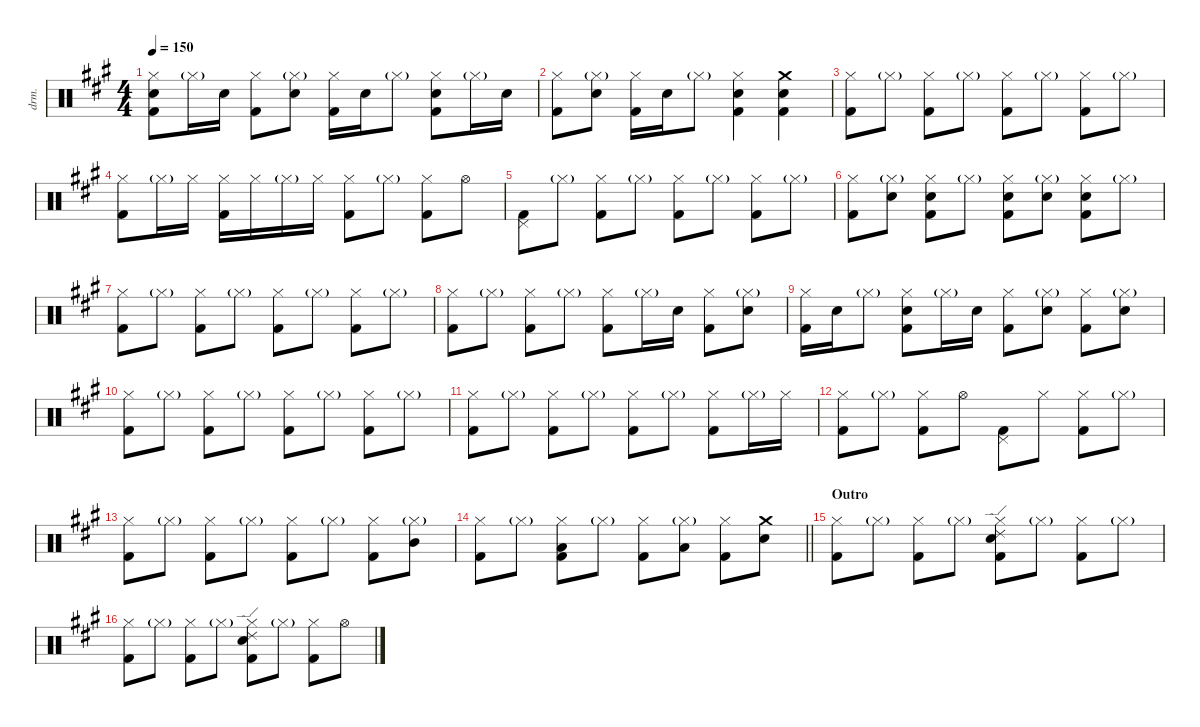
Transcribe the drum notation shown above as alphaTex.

\defaultSystemsLayout 4
\hideDynamics
\bracketExtendMode nobrackets
\otherSystemsTrackNameOrientation horizontal
\track ("Drums" "drm.") {instrument percussion}
\staff {score}
\articulation defaults
\ts (4 4)
\tempo 150
\clef neutral
\ks a
("Kick (hit) 2"{acc forcenatural} "Snare (hit) 2"{acc forcenatural} "Hi-Hat (closed)"{acc forcenatural}).8{dy fff} "Hi-Hat (closed)"{g acc forcenatural}.16{dy p} "Snare (hit) 2"{acc forcenatural}.16 ("Kick (hit) 2"{acc forcenatural} "Hi-Hat (closed)"{acc forcenatural}).8{dy fff} ("Snare (hit) 2"{acc forcenatural} "Hi-Hat (closed)"{g acc forcenatural}).8{dy p} ("Kick (hit) 2"{acc forcenatural} "Hi-Hat (closed)"{acc forcenatural}).16{dy fff} "Snare (hit) 2"{acc forcenatural}.16{dy p} "Hi-Hat (closed)"{g acc forcenatural}.8 ("Kick (hit) 2"{acc forcenatural} "Snare (hit) 2"{acc forcenatural} "Hi-Hat (closed)"{acc forcenatural}).8{dy fff} "Hi-Hat (closed)"{g acc forcenatural}.16{dy p} "Snare (hit) 2"{acc forcenatural}.16 |
("Kick (hit) 2"{acc forcenatural} "Hi-Hat (closed)"{acc forcenatural}).8{dy fff} ("Snare (hit) 2"{acc forcenatural} "Hi-Hat (closed)"{g acc forcenatural}).8{dy p} ("Kick (hit) 2"{acc forcenatural} "Hi-Hat (closed)"{acc forcenatural}).16{dy fff} "Snare (hit) 2"{acc forcenatural}.16{dy p} "Hi-Hat (closed)"{g acc forcenatural}.8 ("Kick (hit) 2"{acc forcenatural} "Snare (hit) 2"{acc forcenatural} "Hi-Hat (closed)"{acc forcenatural}).4{dy fff} ("Kick (hit) 2"{acc forcenatural} "Snare (hit) 2"{acc forcenatural} "Crash medium (hit)"{acc forcenatural}).4 |
("Kick (hit) 2"{acc forcenatural} "Hi-Hat (closed)"{acc forcenatural}).8 "Hi-Hat (closed)"{g acc forcenatural}.8{dy p} ("Kick (hit) 2"{acc forcenatural} "Hi-Hat (closed)"{acc forcenatural}).8{dy fff} "Hi-Hat (closed)"{g acc forcenatural}.8{dy p} ("Kick (hit) 2"{acc forcenatural} "Hi-Hat (closed)"{acc forcenatural}).8{dy fff} "Hi-Hat (closed)"{g acc forcenatural}.8{dy p} ("Kick (hit) 2"{acc forcenatural} "Hi-Hat (closed)"{acc forcenatural}).8{dy fff} "Hi-Hat (closed)"{g acc forcenatural}.8{dy p} |
("Kick (hit) 2"{acc forcenatural} "Hi-Hat (closed)"{acc forcenatural}).8{dy fff} "Hi-Hat (closed)"{g acc forcenatural}.16{dy p} "Hi-Hat (closed)"{acc forcenatural}.16{dy mf} ("Kick (hit) 2"{acc forcenatural} "Hi-Hat (closed)"{acc forcenatural}).16{dy fff} "Hi-Hat (closed)"{acc forcenatural}.16{dy pp} "Hi-Hat (closed)"{g acc forcenatural}.16{dy p} "Hi-Hat (closed)"{acc forcenatural}.16{dy mf} ("Kick (hit) 2"{acc forcenatural} "Hi-Hat (closed)"{acc forcenatural}).8{dy fff} "Hi-Hat (closed)"{g acc forcenatural}.8{dy p} ("Kick (hit) 2"{acc forcenatural} "Hi-Hat (closed)"{acc forcenatural}).8{dy fff} "Hi-Hat (open)"{acc forcenatural}.8{dy mf} |
("Kick (hit) 2"{acc forcenatural} "Pedal Hi-Hat (hit)"{acc forcenatural}).8{dy fff} "Hi-Hat (closed)"{g acc forcenatural}.8{dy p} ("Kick (hit) 2"{acc forcenatural} "Hi-Hat (closed)"{acc forcenatural}).8{dy fff} "Hi-Hat (closed)"{g acc forcenatural}.8{dy p} ("Kick (hit) 2"{acc forcenatural} "Hi-Hat (closed)"{acc forcenatural}).8{dy fff} "Hi-Hat (closed)"{g acc forcenatural}.8{dy p} ("Kick (hit) 2"{acc forcenatural} "Hi-Hat (closed)"{acc forcenatural}).8{dy fff} "Hi-Hat (closed)"{g acc forcenatural}.8{dy p} |
("Kick (hit) 2"{acc forcenatural} "Hi-Hat (closed)"{acc forcenatural}).8{dy fff} ("Snare (hit) 2"{acc forcenatural} "Hi-Hat (closed)"{g acc forcenatural}).8{dy p} ("Kick (hit) 2"{acc forcenatural} "Snare (hit) 2"{acc forcenatural} "Hi-Hat (closed)"{acc forcenatural}).8{dy fff} "Hi-Hat (closed)"{g acc forcenatural}.8{dy p} ("Kick (hit) 2"{acc forcenatural} "Snare (hit) 2"{acc forcenatural} "Hi-Hat (closed)"{acc forcenatural}).8{dy fff} ("Snare (hit) 2"{acc forcenatural} "Hi-Hat (closed)"{g acc forcenatural}).8{dy p} ("Kick (hit) 2"{acc forcenatural} "Snare (hit) 2"{acc forcenatural} "Hi-Hat (closed)"{acc forcenatural}).8{dy fff} "Hi-Hat (closed)"{g acc forcenatural}.8{dy p} |
("Kick (hit) 2"{acc forcenatural} "Hi-Hat (closed)"{acc forcenatural}).8{dy fff} "Hi-Hat (closed)"{g acc forcenatural}.8{dy p} ("Kick (hit) 2"{acc forcenatural} "Hi-Hat (closed)"{acc forcenatural}).8{dy fff} "Hi-Hat (closed)"{g acc forcenatural}.8{dy p} ("Kick (hit) 2"{acc forcenatural} "Hi-Hat (closed)"{acc forcenatural}).8{dy fff} "Hi-Hat (closed)"{g acc forcenatural}.8{dy p} ("Kick (hit) 2"{acc forcenatural} "Hi-Hat (closed)"{acc forcenatural}).8{dy fff} "Hi-Hat (closed)"{g acc forcenatural}.8{dy p} |
("Kick (hit) 2"{acc forcenatural} "Hi-Hat (closed)"{acc forcenatural}).8{dy fff} "Hi-Hat (closed)"{g acc forcenatural}.8{dy p} ("Kick (hit) 2"{acc forcenatural} "Hi-Hat (closed)"{acc forcenatural}).8{dy fff} "Hi-Hat (closed)"{g acc forcenatural}.8{dy p} ("Kick (hit) 2"{acc forcenatural} "Hi-Hat (closed)"{acc forcenatural}).8{dy fff} "Hi-Hat (closed)"{g acc forcenatural}.16{dy p} "Snare (hit) 2"{acc forcenatural}.16 ("Kick (hit) 2"{acc forcenatural} "Hi-Hat (closed)"{acc forcenatural}).8{dy fff} ("Snare (hit) 2"{acc forcenatural} "Hi-Hat (closed)"{g acc forcenatural}).8{dy p} |
("Kick (hit) 2"{acc forcenatural} "Hi-Hat (closed)"{acc forcenatural}).16{dy fff} "Snare (hit) 2"{acc forcenatural}.16{dy p} "Hi-Hat (closed)"{g acc forcenatural}.8 ("Kick (hit) 2"{acc forcenatural} "Snare (hit) 2"{acc forcenatural} "Hi-Hat (closed)"{acc forcenatural}).8{dy fff} "Hi-Hat (closed)"{g acc forcenatural}.16{dy p} "Snare (hit) 2"{acc forcenatural}.16 ("Kick (hit) 2"{acc forcenatural} "Hi-Hat (closed)"{acc forcenatural}).8{dy fff} ("Snare (hit) 2"{acc forcenatural} "Hi-Hat (closed)"{g acc forcenatural}).8{dy p} ("Kick (hit) 2"{acc forcenatural} "Hi-Hat (closed)"{acc forcenatural}).8{dy fff} ("Snare (hit) 2"{acc forcenatural} "Hi-Hat (closed)"{g acc forcenatural}).8{dy p} |
("Kick (hit) 2"{acc forcenatural} "Hi-Hat (closed)"{acc forcenatural}).8{dy fff} "Hi-Hat (closed)"{g acc forcenatural}.8{dy p} ("Kick (hit) 2"{acc forcenatural} "Hi-Hat (closed)"{acc forcenatural}).8{dy fff} "Hi-Hat (closed)"{g acc forcenatural}.8{dy p} ("Kick (hit) 2"{acc forcenatural} "Hi-Hat (closed)"{acc forcenatural}).8{dy fff} "Hi-Hat (closed)"{g acc forcenatural}.8{dy p} ("Kick (hit) 2"{acc forcenatural} "Hi-Hat (closed)"{acc forcenatural}).8{dy fff} "Hi-Hat (closed)"{g acc forcenatural}.8{dy p} |
("Kick (hit) 2"{acc forcenatural} "Hi-Hat (closed)"{acc forcenatural}).8{dy fff} "Hi-Hat (closed)"{g acc forcenatural}.8{dy p} ("Kick (hit) 2"{acc forcenatural} "Hi-Hat (closed)"{acc forcenatural}).8{dy fff} "Hi-Hat (closed)"{g acc forcenatural}.8{dy p} ("Kick (hit) 2"{acc forcenatural} "Hi-Hat (closed)"{acc forcenatural}).8{dy fff} "Hi-Hat (closed)"{g acc forcenatural}.8{dy p} ("Kick (hit) 2"{acc forcenatural} "Hi-Hat (closed)"{acc forcenatural}).8{dy fff} "Hi-Hat (closed)"{g acc forcenatural}.16{dy p} "Hi-Hat (closed)"{acc forcenatural}.16{dy mf} |
("Kick (hit) 2"{acc forcenatural} "Hi-Hat (closed)"{acc forcenatural}).8{dy fff} "Hi-Hat (closed)"{g acc forcenatural}.8{dy p} ("Kick (hit) 2"{acc forcenatural} "Hi-Hat (closed)"{acc forcenatural}).8{dy fff} "Hi-Hat (open)"{acc forcenatural}.8{dy mp} ("Kick (hit) 2"{acc forcenatural} "Pedal Hi-Hat (hit)"{acc forcenatural}).8{dy fff} "Hi-Hat (closed)"{acc forcenatural}.8{dy mp} ("Kick (hit) 2"{acc forcenatural} "Hi-Hat (closed)"{acc forcenatural}).8{dy fff} "Hi-Hat (closed)"{g acc forcenatural}.8{dy p} |
("Kick (hit) 2"{acc forcenatural} "Hi-Hat (closed)"{acc forcenatural}).8{dy fff} "Hi-Hat (closed)"{g acc forcenatural}.8{dy p} ("Kick (hit) 2"{acc forcenatural} "Hi-Hat (closed)"{acc forcenatural}).8{dy fff} "Hi-Hat (closed)"{g acc forcenatural}.8{dy p} ("Kick (hit) 2"{acc forcenatural} "Hi-Hat (closed)"{acc forcenatural}).8{dy fff} "Hi-Hat (closed)"{g acc forcenatural}.8{dy p} ("Kick (hit) 2"{acc forcenatural} "Hi-Hat (closed)"{acc forcenatural}).8{dy fff} ("Hi-Hat (closed)"{g acc forcenatural} "Mid Tom (hit)"{acc forcenatural}).8{dy mp} |
\barLineRight lightlight
("Kick (hit) 2"{acc forcenatural} "Hi-Hat (closed)"{acc forcenatural}).8{dy fff} "Hi-Hat (closed)"{g acc forcenatural}.8{dy p} ("Kick (hit) 2"{acc forcenatural} "Hi-Hat (closed)"{acc forcenatural} "Low Tom (hit)"{acc forcenatural}).8{dy fff} "Hi-Hat (closed)"{g acc forcenatural}.8{dy p} ("Kick (hit) 2"{acc forcenatural} "Hi-Hat (closed)"{acc forcenatural}).8{dy fff} ("Low Floor Tom (hit)"{acc forcenatural} "Hi-Hat (closed)"{g acc forcenatural}).8{dy ff} ("Kick (hit) 2"{acc forcenatural} "Hi-Hat (closed)"{acc forcenatural}).8{dy fff} ("Snare (hit) 2"{acc forcenatural} "Crash medium (hit)"{acc forcenatural}).8 |
\section ("" "Outro")
("Kick (hit) 2"{acc forcenatural} "Hi-Hat (closed)"{acc forcenatural}).8 "Hi-Hat (closed)"{g acc forcenatural}.8{dy p} ("Kick (hit) 2"{acc forcenatural} "Hi-Hat (closed)"{acc forcenatural}).8{dy fff} "Hi-Hat (closed)"{g acc forcenatural}.8{dy p} ("Kick (hit) 2"{acc forcenatural} "Snare (hit) 2"{acc forcenatural} "Hi-Hat (closed)"{acc forcenatural} "Ride (edge) 2"{acc forcenatural}).8{dy fff} "Hi-Hat (closed)"{g acc forcenatural}.8{dy p} ("Kick (hit) 2"{acc forcenatural} "Hi-Hat (closed)"{acc forcenatural}).8{dy fff} "Hi-Hat (closed)"{g acc forcenatural}.8{dy p} |
("Kick (hit) 2"{acc forcenatural} "Hi-Hat (closed)"{acc forcenatural}).8{dy fff} "Hi-Hat (closed)"{g acc forcenatural}.8{dy p} ("Kick (hit) 2"{acc forcenatural} "Hi-Hat (closed)"{acc forcenatural}).8{dy fff} "Hi-Hat (closed)"{g acc forcenatural}.8{dy p} ("Kick (hit) 2"{acc forcenatural} "Snare (hit) 2"{acc forcenatural} "Hi-Hat (closed)"{acc forcenatural} "Ride (edge) 2"{acc forcenatural}).8{dy fff} "Hi-Hat (closed)"{g acc forcenatural}.8{dy p} ("Kick (hit) 2"{acc forcenatural} "Hi-Hat (closed)"{acc forcenatural}).8{dy fff} "Hi-Hat (open)"{acc forcenatural}.8{dy mp}
